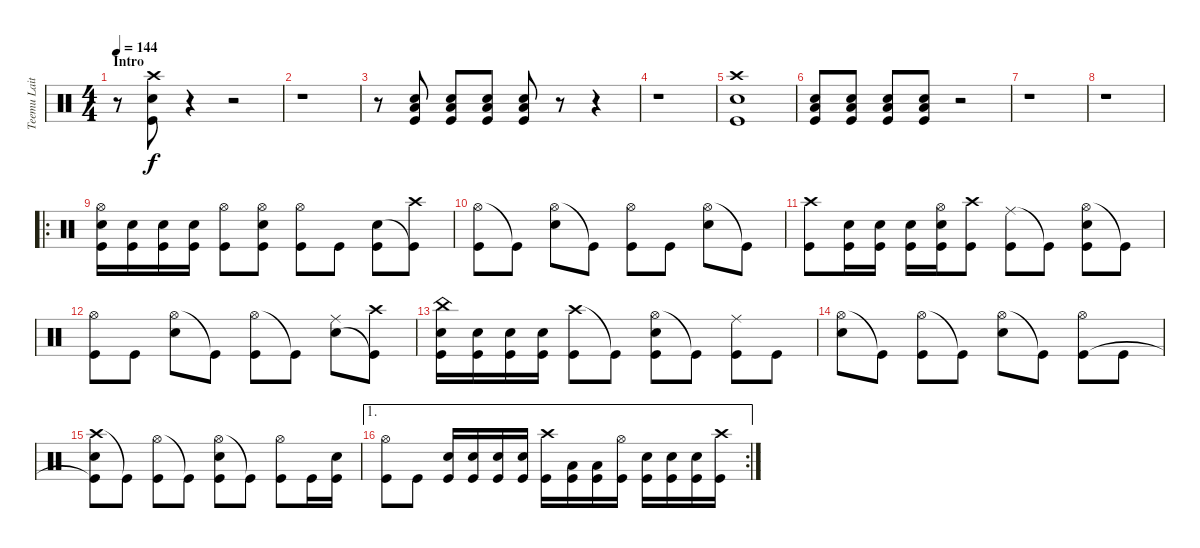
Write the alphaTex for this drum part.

\track ("Teemu Laitinen" "Teemu Lait") {instrument percussion}
\staff {score}
\articulation defaults
\ts (4 4)
\section ("" "Intro")
\tempo 144
\clef neutral
\ks c
r.8{dy f} ("Crash high (hit)" "Kick (hit)" "Electric Snare (hit)").8 r.4 r.2 |
r.1 |
r.8 ("Kick (hit)" "Low Tom (hit)" "Electric Snare (hit)").8 ("Kick (hit)" "Low Tom (hit)" "Electric Snare (hit)").8 ("Kick (hit)" "Low Tom (hit)" "Electric Snare (hit)").8 ("Kick (hit)" "Low Tom (hit)" "Electric Snare (hit)").8 r.8 r.4 |
r.1 |
("Crash high (hit)" "Kick (hit)" "Electric Snare (hit)").1 |
("Kick (hit)" "Low Tom (hit)" "Electric Snare (hit)").8 ("Kick (hit)" "Low Tom (hit)" "Electric Snare (hit)").8 ("Kick (hit)" "Low Tom (hit)" "Electric Snare (hit)").8 ("Kick (hit)" "Low Tom (hit)" "Electric Snare (hit)").8 r.2 |
r.1 |
r.1 |
\ro
("Hi-Hat (open)" "Kick (hit)" "Electric Snare (hit)").16 ("Kick (hit)" "Electric Snare (hit)").16 ("Kick (hit)" "Electric Snare (hit)").16 ("Kick (hit)" "Electric Snare (hit)").16 ("Hi-Hat (open)" "Kick (hit)").8 ("Hi-Hat (open)" "Kick (hit)" "Electric Snare (hit)").8 ("Hi-Hat (open)" "Kick (hit)").8 "Kick (hit)".8 ("Kick (hit)" "Electric Snare (hit)").8 ("Crash high (hit)" "Kick (hit)"{t}).8 |
("Hi-Hat (open)" "Kick (hit)").8 "Kick (hit)"{t}.8 ("Hi-Hat (open)" "Electric Snare (hit)").8 "Kick (hit)"{t}.8 ("Hi-Hat (open)" "Kick (hit)").8 "Kick (hit)".8 ("Hi-Hat (open)" "Electric Snare (hit)").8 "Kick (hit)"{t}.8 |
("Crash high (hit)" "Kick (hit)").8 ("Kick (hit)" "Electric Snare (hit)").16 ("Kick (hit)" "Electric Snare (hit)").16 ("Kick (hit)" "Electric Snare (hit)").16 ("Hi-Hat (open)" "Kick (hit)" "Electric Snare (hit)").16 ("Crash high (hit)" "Kick (hit)").8 ("Ride (middle)" "Kick (hit)").8 "Kick (hit)"{t}.8 ("Hi-Hat (open)" "Kick (hit)" "Electric Snare (hit)").8 "Kick (hit)"{t}.8 |
("Hi-Hat (open)" "Kick (hit)").8 "Kick (hit)".8 ("Hi-Hat (open)" "Electric Snare (hit)").8 "Kick (hit)"{t}.8 ("Hi-Hat (open)" "Kick (hit)").8 "Kick (hit)"{t}.8 ("Ride (middle)" "Electric Snare (hit)").8 ("Crash high (hit)" "Kick (hit)"{t}).8 |
("China (hit)" "Kick (hit)" "Electric Snare (hit)").16 ("Kick (hit)" "Electric Snare (hit)").16 ("Kick (hit)" "Electric Snare (hit)").16 ("Kick (hit)" "Electric Snare (hit)").16 ("Crash high (hit)" "Kick (hit)").8 "Kick (hit)"{t}.8 ("Hi-Hat (open)" "Kick (hit)" "Electric Snare (hit)").8 "Kick (hit)"{t}.8 ("Ride (middle)" "Kick (hit)").8 "Kick (hit)".8 |
("Hi-Hat (open)" "Electric Snare (hit)").8 "Kick (hit)"{t}.8 ("Hi-Hat (open)" "Kick (hit)").8 "Kick (hit)"{t}.8 ("Hi-Hat (open)" "Electric Snare (hit)").8 "Kick (hit)"{t}.8 ("Hi-Hat (open)" "Kick (hit)").8 "Kick (hit)".8 |
("Crash high (hit)" "Kick (hit)"{t} "Electric Snare (hit)").8 "Kick (hit)"{t}.8 ("Hi-Hat (open)" "Kick (hit)").8 "Kick (hit)"{t}.8 ("Hi-Hat (open)" "Kick (hit)" "Electric Snare (hit)").8 "Kick (hit)"{t}.8 ("Hi-Hat (open)" "Kick (hit)").8 "Kick (hit)".16 ("Kick (hit)" "Electric Snare (hit)").16 |
\ae 1
\rc 2
("Hi-Hat (open)" "Kick (hit)").8 "Kick (hit)".8 ("Kick (hit)" "Electric Snare (hit)").16 ("Kick (hit)" "Electric Snare (hit)").16 ("Kick (hit)" "Electric Snare (hit)").16 ("Kick (hit)" "Electric Snare (hit)").16 ("Crash high (hit)" "Kick (hit)").16 ("Kick (hit)" "Low Tom (hit)").16 ("Kick (hit)" "Low Floor Tom (hit)").16 ("Hi-Hat (open)" "Kick (hit)").16 ("Kick (hit)" "Electric Snare (hit)").16 ("Kick (hit)" "Electric Snare (hit)").16 ("Kick (hit)" "Electric Snare (hit)").16 ("Crash high (hit)" "Kick (hit)").16
